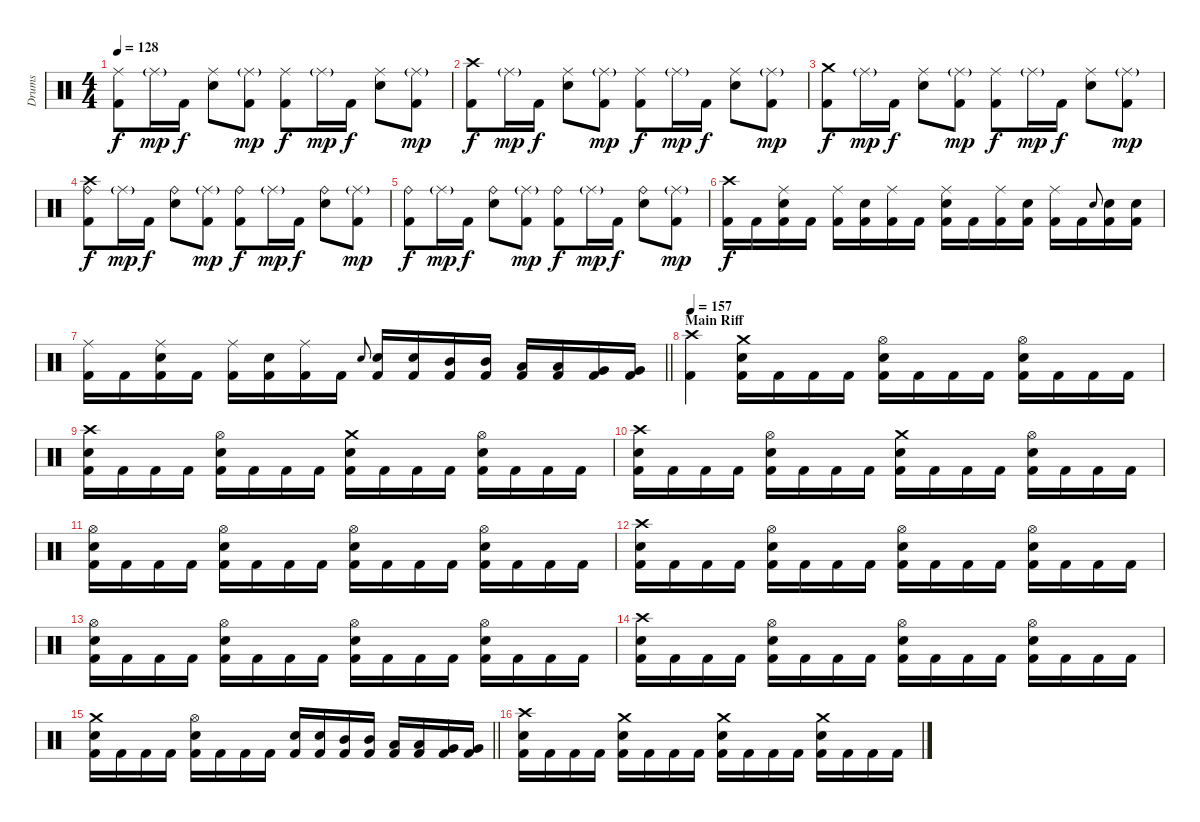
\track ("Drums" "Drums") {instrument percussion}
\staff {score}
\articulation defaults
\ts (4 4)
\tempo 128
\clef neutral
\ks c
("Ride (middle)" "Kick (hit) 2").8{dy f} "Ride (middle)"{g}.16{dy mp} "Kick (hit) 2".16{dy f} ("Ride (middle)" "Electric Snare (hit)").8 ("Ride (middle)"{g} "Kick (hit) 2").8{dy mp} ("Ride (middle)" "Kick (hit) 2").8{dy f} "Ride (middle)"{g}.16{dy mp} "Kick (hit) 2".16{dy f} ("Ride (middle)" "Electric Snare (hit)").8 ("Ride (middle)"{g} "Kick (hit) 2").8{dy mp} |
("Crash high (hit)" "Kick (hit) 2").8{dy f} "Ride (middle)"{g}.16{dy mp} "Kick (hit) 2".16{dy f} ("Ride (middle)" "Electric Snare (hit)").8 ("Ride (middle)"{g} "Kick (hit) 2").8{dy mp} ("Ride (middle)" "Kick (hit) 2").8{dy f} "Ride (middle)"{g}.16{dy mp} "Kick (hit) 2".16{dy f} ("Ride (middle)" "Electric Snare (hit)").8 ("Ride (middle)"{g} "Kick (hit) 2").8{dy mp} |
("Crash medium (hit)" "Kick (hit) 2").8{dy f} "Ride (middle)"{g}.16{dy mp} "Kick (hit) 2".16{dy f} ("Ride (middle)" "Electric Snare (hit)").8 ("Ride (middle)"{g} "Kick (hit) 2").8{dy mp} ("Ride (middle)" "Kick (hit) 2").8{dy f} "Ride (middle)"{g}.16{dy mp} "Kick (hit) 2".16{dy f} ("Ride (middle)" "Electric Snare (hit)").8 ("Ride (middle)"{g} "Kick (hit) 2").8{dy mp} |
("Crash high (hit)" "Ride (bell)" "Kick (hit) 2").8{dy f} "Ride (middle)"{g}.16{dy mp} "Kick (hit) 2".16{dy f} ("Ride (bell)" "Electric Snare (hit)").8 ("Ride (middle)"{g} "Kick (hit) 2").8{dy mp} ("Ride (bell)" "Kick (hit) 2").8{dy f} "Ride (middle)"{g}.16{dy mp} "Kick (hit) 2".16{dy f} ("Ride (bell)" "Electric Snare (hit)").8 ("Ride (middle)"{g} "Kick (hit) 2").8{dy mp} |
("Ride (bell)" "Kick (hit) 2").8{dy f} "Ride (middle)"{g}.16{dy mp} "Kick (hit) 2".16{dy f} ("Ride (bell)" "Electric Snare (hit)").8 ("Ride (middle)"{g} "Kick (hit) 2").8{dy mp} ("Ride (bell)" "Kick (hit) 2").8{dy f} "Ride (middle)"{g}.16{dy mp} "Kick (hit) 2".16{dy f} ("Ride (bell)" "Electric Snare (hit)").8 ("Ride (middle)"{g} "Kick (hit) 2").8{dy mp} |
("Crash high (hit)" "Kick (hit) 2").16{dy f} "Kick (hit) 2".16 ("Ride (middle)" "Electric Snare (hit)" "Kick (hit) 2").16 "Kick (hit) 2".16 ("Ride (middle)" "Kick (hit) 2").16 ("Electric Snare (hit)" "Kick (hit) 2").16 ("Ride (middle)" "Kick (hit) 2").16 "Kick (hit) 2".16 ("Ride (middle)" "Electric Snare (hit)" "Kick (hit) 2").16 "Kick (hit) 2".16 ("Ride (middle)" "Kick (hit) 2").16 ("Electric Snare (hit)" "Kick (hit) 2").16 ("Ride (middle)" "Kick (hit) 2").16 "Kick (hit) 2".16 "Electric Snare (hit)".8{gr onbeat} ("Electric Snare (hit)" "Kick (hit) 2").16 ("Electric Snare (hit)" "Kick (hit) 2").16 |
\barLineRight lightlight
("Ride (middle)" "Kick (hit) 2").16 "Kick (hit) 2".16 ("Ride (middle)" "Electric Snare (hit)" "Kick (hit) 2").16 "Kick (hit) 2".16 ("Ride (middle)" "Kick (hit) 2").16 ("Electric Snare (hit)" "Kick (hit) 2").16 ("Ride (middle)" "Kick (hit) 2").16 "Kick (hit) 2".16 "Electric Snare (hit)".8{gr onbeat} ("Electric Snare (hit)" "Kick (hit) 2").16 ("Electric Snare (hit)" "Kick (hit) 2").16 ("Mid Tom (hit)" "Kick (hit) 2").16 ("Mid Tom (hit)" "Kick (hit) 2").16 ("Low Tom (hit)" "Kick (hit) 2").16 ("Low Tom (hit)" "Kick (hit) 2").16 ("Very Low Tom (hit)" "Kick (hit) 2").16 ("Very Low Tom (hit)" "Kick (hit) 2").16 |
\section ("" "Main Riff")
\tempo 157
("Crash high (hit)" "Kick (hit) 2").4 ("Crash medium (hit)" "Electric Snare (hit)" "Kick (hit) 2").16 "Kick (hit) 2".16 "Kick (hit) 2".16 "Kick (hit) 2".16 ("Hi-Hat (open)" "Electric Snare (hit)" "Kick (hit) 2").16 "Kick (hit) 2".16 "Kick (hit) 2".16 "Kick (hit) 2".16 ("Hi-Hat (open)" "Electric Snare (hit)" "Kick (hit) 2").16 "Kick (hit) 2".16 "Kick (hit) 2".16 "Kick (hit) 2".16 |
("Crash high (hit)" "Electric Snare (hit)" "Kick (hit) 2").16 "Kick (hit) 2".16 "Kick (hit) 2".16 "Kick (hit) 2".16 ("Hi-Hat (open)" "Electric Snare (hit)" "Kick (hit) 2").16 "Kick (hit) 2".16 "Kick (hit) 2".16 "Kick (hit) 2".16 ("Crash medium (hit)" "Electric Snare (hit)" "Kick (hit) 2").16 "Kick (hit) 2".16 "Kick (hit) 2".16 "Kick (hit) 2".16 ("Hi-Hat (open)" "Electric Snare (hit)" "Kick (hit) 2").16 "Kick (hit) 2".16 "Kick (hit) 2".16 "Kick (hit) 2".16 |
("Crash high (hit)" "Electric Snare (hit)" "Kick (hit) 2").16 "Kick (hit) 2".16 "Kick (hit) 2".16 "Kick (hit) 2".16 ("Hi-Hat (open)" "Electric Snare (hit)" "Kick (hit) 2").16 "Kick (hit) 2".16 "Kick (hit) 2".16 "Kick (hit) 2".16 ("Crash medium (hit)" "Electric Snare (hit)" "Kick (hit) 2").16 "Kick (hit) 2".16 "Kick (hit) 2".16 "Kick (hit) 2".16 ("Hi-Hat (open)" "Electric Snare (hit)" "Kick (hit) 2").16 "Kick (hit) 2".16 "Kick (hit) 2".16 "Kick (hit) 2".16 |
("Hi-Hat (open)" "Electric Snare (hit)" "Kick (hit) 2").16 "Kick (hit) 2".16 "Kick (hit) 2".16 "Kick (hit) 2".16 ("Hi-Hat (open)" "Electric Snare (hit)" "Kick (hit) 2").16 "Kick (hit) 2".16 "Kick (hit) 2".16 "Kick (hit) 2".16 ("Hi-Hat (open)" "Electric Snare (hit)" "Kick (hit) 2").16 "Kick (hit) 2".16 "Kick (hit) 2".16 "Kick (hit) 2".16 ("Hi-Hat (open)" "Electric Snare (hit)" "Kick (hit) 2").16 "Kick (hit) 2".16 "Kick (hit) 2".16 "Kick (hit) 2".16 |
("Crash high (hit)" "Electric Snare (hit)" "Kick (hit) 2").16 "Kick (hit) 2".16 "Kick (hit) 2".16 "Kick (hit) 2".16 ("Hi-Hat (open)" "Electric Snare (hit)" "Kick (hit) 2").16 "Kick (hit) 2".16 "Kick (hit) 2".16 "Kick (hit) 2".16 ("Hi-Hat (open)" "Electric Snare (hit)" "Kick (hit) 2").16 "Kick (hit) 2".16 "Kick (hit) 2".16 "Kick (hit) 2".16 ("Hi-Hat (open)" "Electric Snare (hit)" "Kick (hit) 2").16 "Kick (hit) 2".16 "Kick (hit) 2".16 "Kick (hit) 2".16 |
("Hi-Hat (open)" "Electric Snare (hit)" "Kick (hit) 2").16 "Kick (hit) 2".16 "Kick (hit) 2".16 "Kick (hit) 2".16 ("Hi-Hat (open)" "Electric Snare (hit)" "Kick (hit) 2").16 "Kick (hit) 2".16 "Kick (hit) 2".16 "Kick (hit) 2".16 ("Hi-Hat (open)" "Electric Snare (hit)" "Kick (hit) 2").16 "Kick (hit) 2".16 "Kick (hit) 2".16 "Kick (hit) 2".16 ("Hi-Hat (open)" "Electric Snare (hit)" "Kick (hit) 2").16 "Kick (hit) 2".16 "Kick (hit) 2".16 "Kick (hit) 2".16 |
("Crash high (hit)" "Electric Snare (hit)" "Kick (hit) 2").16 "Kick (hit) 2".16 "Kick (hit) 2".16 "Kick (hit) 2".16 ("Hi-Hat (open)" "Electric Snare (hit)" "Kick (hit) 2").16 "Kick (hit) 2".16 "Kick (hit) 2".16 "Kick (hit) 2".16 ("Hi-Hat (open)" "Electric Snare (hit)" "Kick (hit) 2").16 "Kick (hit) 2".16 "Kick (hit) 2".16 "Kick (hit) 2".16 ("Hi-Hat (open)" "Electric Snare (hit)" "Kick (hit) 2").16 "Kick (hit) 2".16 "Kick (hit) 2".16 "Kick (hit) 2".16 |
\barLineRight lightlight
("Crash medium (hit)" "Electric Snare (hit)" "Kick (hit) 2").16 "Kick (hit) 2".16 "Kick (hit) 2".16 "Kick (hit) 2".16 ("Hi-Hat (open)" "Electric Snare (hit)" "Kick (hit) 2").16 "Kick (hit) 2".16 "Kick (hit) 2".16 "Kick (hit) 2".16 ("Electric Snare (hit)" "Kick (hit) 2").16 ("Electric Snare (hit)" "Kick (hit) 2").16 ("Mid Tom (hit)" "Kick (hit) 2").16 ("Mid Tom (hit)" "Kick (hit) 2").16 ("Low Tom (hit)" "Kick (hit) 2").16 ("Low Tom (hit)" "Kick (hit) 2").16 ("Very Low Tom (hit)" "Kick (hit) 2").16 ("Very Low Tom (hit)" "Kick (hit) 2").16 |
("Crash high (hit)" "Electric Snare (hit)" "Kick (hit) 2").16 "Kick (hit) 2".16 "Kick (hit) 2".16 "Kick (hit) 2".16 ("Crash medium (hit)" "Electric Snare (hit)" "Kick (hit) 2").16 "Kick (hit) 2".16 "Kick (hit) 2".16 "Kick (hit) 2".16 ("Crash medium (hit)" "Electric Snare (hit)" "Kick (hit) 2").16 "Kick (hit) 2".16 "Kick (hit) 2".16 "Kick (hit) 2".16 ("Crash medium (hit)" "Electric Snare (hit)" "Kick (hit) 2").16 "Kick (hit) 2".16 "Kick (hit) 2".16 "Kick (hit) 2".16
